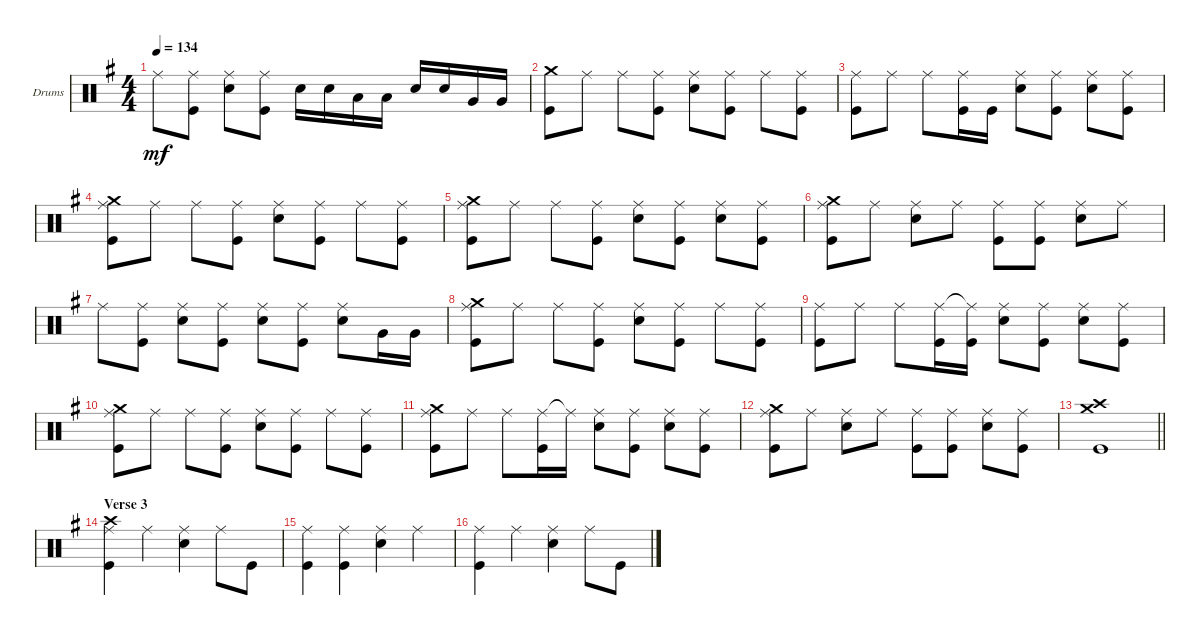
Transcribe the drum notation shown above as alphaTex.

\bracketExtendMode groupsimilarinstruments
\firstSystemTrackNameOrientation horizontal
\otherSystemsTrackNameOrientation horizontal
\track ("drums (Anton Zulganov)" "Drums") {instrument percussion}
\staff {score}
\articulation defaults
\ts (4 4)
\tempo 134
\clef neutral
\ks eminor "Ride (middle)".8{dy mf}
("Ride (middle)" "Kick (hit)").8 ("Ride (middle)" "Snare (hit) 2").8 ("Ride (middle)" "Kick (hit)").8 "Snare (hit) 2".16 "Snare (hit) 2".16 "Low Tom (hit)".16 "Low Tom (hit)".16 "Snare (hit) 2".16 "Snare (hit) 2".16 "Very Low Tom (hit)".16 "Very Low Tom (hit)".16 |
("Crash medium (hit)" "Kick (hit)").8 "Ride (middle)".8 "Ride (middle)".8 ("Ride (middle)" "Kick (hit)").8 ("Ride (middle)" "Snare (hit) 2").8 ("Ride (middle)" "Kick (hit)").8 "Ride (middle)".8 ("Ride (middle)" "Kick (hit)").8 |
("Ride (middle)" "Kick (hit)").8 "Ride (middle)".8 "Ride (middle)".8 ("Ride (middle)" "Kick (hit)").16 "Kick (hit)".16 ("Ride (middle)" "Snare (hit) 2").8 ("Ride (middle)" "Kick (hit)").8 ("Ride (middle)" "Snare (hit) 2").8 ("Ride (middle)" "Kick (hit)").8 |
("Ride (middle)" "Kick (hit)" "Crash medium (hit)").8 "Ride (middle)".8 "Ride (middle)".8 ("Ride (middle)" "Kick (hit)").8 ("Ride (middle)" "Snare (hit) 2").8 ("Ride (middle)" "Kick (hit)").8 "Ride (middle)".8 ("Ride (middle)" "Kick (hit)").8 |
("Ride (middle)" "Kick (hit)" "Crash medium (hit)").8 "Ride (middle)".8 "Ride (middle)".8 ("Ride (middle)" "Kick (hit)").8 ("Ride (middle)" "Snare (hit) 2").8 ("Ride (middle)" "Kick (hit)").8 ("Ride (middle)" "Snare (hit) 2").8 ("Ride (middle)" "Kick (hit)").8 |
("Ride (middle)" "Kick (hit)" "Crash medium (hit)").8 "Ride (middle)".8 ("Ride (middle)" "Snare (hit) 2").8 "Ride (middle)".8 ("Ride (middle)" "Kick (hit)").8 ("Ride (middle)" "Kick (hit)").8 ("Ride (middle)" "Snare (hit) 2").8 "Ride (middle)".8 |
"Ride (middle)".8 ("Ride (middle)" "Kick (hit)").8 ("Ride (middle)" "Snare (hit) 2").8 ("Ride (middle)" "Kick (hit)").8 ("Ride (middle)" "Snare (hit) 2").8 ("Ride (middle)" "Kick (hit)").8 ("Snare (hit) 2" "Ride (middle)").8 "Very Low Tom (hit)".16 "Very Low Tom (hit)".16 |
("Ride (middle)" "Kick (hit)" "Crash medium (hit)").8 "Ride (middle)".8 "Ride (middle)".8 ("Ride (middle)" "Kick (hit)").8 ("Ride (middle)" "Snare (hit) 2").8 ("Ride (middle)" "Kick (hit)").8 "Ride (middle)".8 ("Ride (middle)" "Kick (hit)").8 |
("Ride (middle)" "Kick (hit)").8 "Ride (middle)".8 "Ride (middle)".8 ("Ride (middle)" "Kick (hit)").16 ("Ride (middle)"{t} "Kick (hit)").16 ("Ride (middle)" "Snare (hit) 2").8 ("Ride (middle)" "Kick (hit)").8 ("Ride (middle)" "Snare (hit) 2").8 ("Ride (middle)" "Kick (hit)").8 |
("Ride (middle)" "Kick (hit)" "Crash medium (hit)").8 "Ride (middle)".8 "Ride (middle)".8 ("Ride (middle)" "Kick (hit)").8 ("Ride (middle)" "Snare (hit) 2").8 ("Ride (middle)" "Kick (hit)").8 "Ride (middle)".8 ("Ride (middle)" "Kick (hit)").8 |
("Ride (middle)" "Kick (hit)" "Crash medium (hit)").8 "Ride (middle)".8 "Ride (middle)".8 ("Ride (middle)" "Kick (hit)").16 "Ride (middle)"{t}.16 ("Ride (middle)" "Snare (hit) 2").8 ("Ride (middle)" "Kick (hit)").8 ("Ride (middle)" "Snare (hit) 2").8 ("Ride (middle)" "Kick (hit)").8 |
("Ride (middle)" "Kick (hit)" "Crash medium (hit)").8 "Ride (middle)".8 ("Ride (middle)" "Snare (hit) 2").8 "Ride (middle)".8 ("Ride (middle)" "Kick (hit)").8 ("Ride (middle)" "Kick (hit)").8 ("Ride (middle)" "Snare (hit) 2").8 ("Ride (middle)" "Kick (hit)").8 |
\barLineRight lightlight
("Crash high (hit)" "Kick (hit)" "Crash medium (hit)").1 |
\section ("" "Verse 3")
("Ride (middle)" "Kick (hit)" "Crash high (hit)").4 "Ride (middle)".4 ("Ride (middle)" "Snare (hit) 2").4 "Ride (middle)".8 "Kick (hit)".8 |
("Ride (middle)" "Kick (hit)").4 ("Ride (middle)" "Kick (hit)").4 ("Ride (middle)" "Snare (hit) 2").4 "Ride (middle)".4 |
("Ride (middle)" "Kick (hit)").4 "Ride (middle)".4 ("Ride (middle)" "Snare (hit) 2").4 "Ride (middle)".8 "Kick (hit)".8
